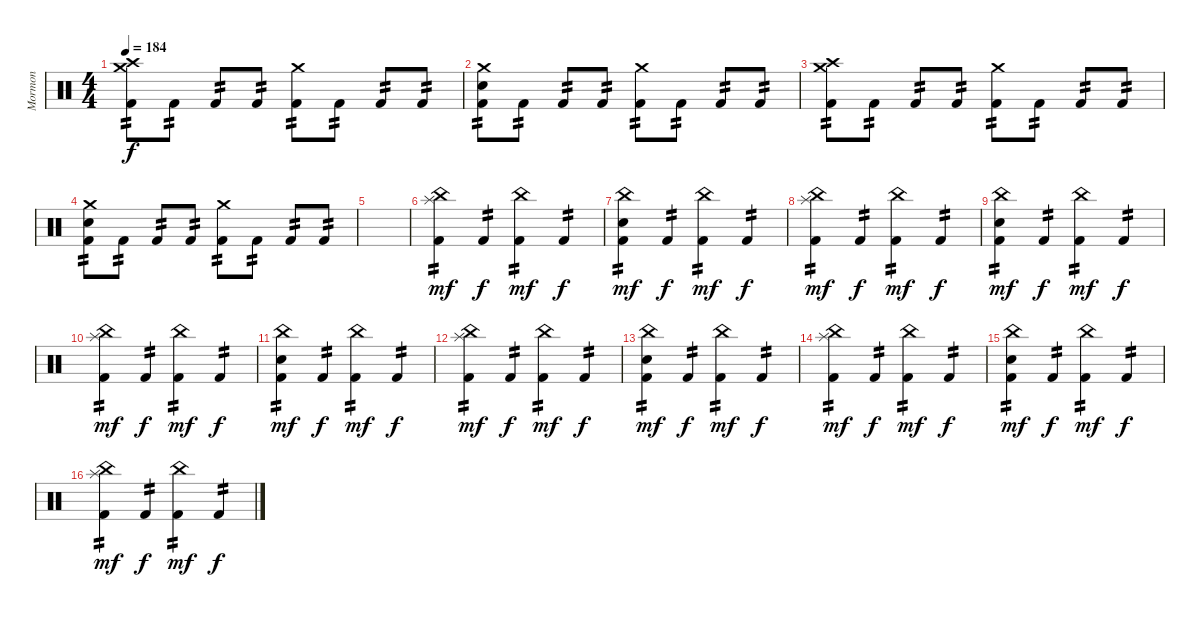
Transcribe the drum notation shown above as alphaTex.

\track ("Mormon" "Mormon") {solo instrument percussion}
\staff {score}
\articulation defaults
\ts (4 4)
\tempo 184
\clef neutral
\ks c
("Crash medium (hit)" "Crash high (hit)" "Kick (hit) 2").8{tp 2 dy f} "Kick (hit) 2".8{tp 2} "Kick (hit) 2".8{tp 2} "Kick (hit) 2".8{tp 2} ("Crash medium (hit)" "Kick (hit) 2").8{tp 2} "Kick (hit) 2".8{tp 2} "Kick (hit) 2".8{tp 2} "Kick (hit) 2".8{tp 2} |
("Crash medium (hit)" "Snare (hit) 2" "Kick (hit) 2").8{tp 2} "Kick (hit) 2".8{tp 2} "Kick (hit) 2".8{tp 2} "Kick (hit) 2".8{tp 2} ("Crash medium (hit)" "Kick (hit) 2").8{tp 2} "Kick (hit) 2".8{tp 2} "Kick (hit) 2".8{tp 2} "Kick (hit) 2".8{tp 2} |
("Crash medium (hit)" "Crash high (hit)" "Kick (hit) 2").8{tp 2} "Kick (hit) 2".8{tp 2} "Kick (hit) 2".8{tp 2} "Kick (hit) 2".8{tp 2} ("Crash medium (hit)" "Kick (hit) 2").8{tp 2} "Kick (hit) 2".8{tp 2} "Kick (hit) 2".8{tp 2} "Kick (hit) 2".8{tp 2} |
("Crash medium (hit)" "Snare (hit) 2" "Kick (hit) 2").8{tp 2} "Kick (hit) 2".8{tp 2} "Kick (hit) 2".8{tp 2} "Kick (hit) 2".8{tp 2} ("Crash medium (hit)" "Kick (hit) 2").8{tp 2} "Kick (hit) 2".8{tp 2} "Kick (hit) 2".8{tp 2} "Kick (hit) 2".8{tp 2} |
|
("China (hit)" "Splash (hit)" "Kick (hit) 2").4{tp 2 dy mf} "Kick (hit) 2".4{tp 2 dy f} ("China (hit)" "Kick (hit) 2").4{tp 2 dy mf} "Kick (hit) 2".4{tp 2 dy f} |
("China (hit)" "Snare (hit) 2" "Kick (hit) 2").4{tp 2 dy mf} "Kick (hit) 2".4{tp 2 dy f} ("China (hit)" "Kick (hit) 2").4{tp 2 dy mf} "Kick (hit) 2".4{tp 2 dy f} |
("China (hit)" "Splash (hit)" "Kick (hit) 2").4{tp 2 dy mf} "Kick (hit) 2".4{tp 2 dy f} ("China (hit)" "Kick (hit) 2").4{tp 2 dy mf} "Kick (hit) 2".4{tp 2 dy f} |
("China (hit)" "Snare (hit) 2" "Kick (hit) 2").4{tp 2 dy mf} "Kick (hit) 2".4{tp 2 dy f} ("China (hit)" "Kick (hit) 2").4{tp 2 dy mf} "Kick (hit) 2".4{tp 2 dy f} |
("China (hit)" "Splash (hit)" "Kick (hit) 2").4{tp 2 dy mf} "Kick (hit) 2".4{tp 2 dy f} ("China (hit)" "Kick (hit) 2").4{tp 2 dy mf} "Kick (hit) 2".4{tp 2 dy f} |
("China (hit)" "Snare (hit) 2" "Kick (hit) 2").4{tp 2 dy mf} "Kick (hit) 2".4{tp 2 dy f} ("China (hit)" "Kick (hit) 2").4{tp 2 dy mf} "Kick (hit) 2".4{tp 2 dy f} |
("China (hit)" "Splash (hit)" "Kick (hit) 2").4{tp 2 dy mf} "Kick (hit) 2".4{tp 2 dy f} ("China (hit)" "Kick (hit) 2").4{tp 2 dy mf} "Kick (hit) 2".4{tp 2 dy f} |
("China (hit)" "Snare (hit) 2" "Kick (hit) 2").4{tp 2 dy mf} "Kick (hit) 2".4{tp 2 dy f} ("China (hit)" "Kick (hit) 2").4{tp 2 dy mf} "Kick (hit) 2".4{tp 2 dy f} |
("China (hit)" "Splash (hit)" "Kick (hit) 2").4{tp 2 dy mf} "Kick (hit) 2".4{tp 2 dy f} ("China (hit)" "Kick (hit) 2").4{tp 2 dy mf} "Kick (hit) 2".4{tp 2 dy f} |
("China (hit)" "Snare (hit) 2" "Kick (hit) 2").4{tp 2 dy mf} "Kick (hit) 2".4{tp 2 dy f} ("China (hit)" "Kick (hit) 2").4{tp 2 dy mf} "Kick (hit) 2".4{tp 2 dy f} |
("China (hit)" "Splash (hit)" "Kick (hit) 2").4{tp 2 dy mf} "Kick (hit) 2".4{tp 2 dy f} ("China (hit)" "Kick (hit) 2").4{tp 2 dy mf} "Kick (hit) 2".4{tp 2 dy f}
